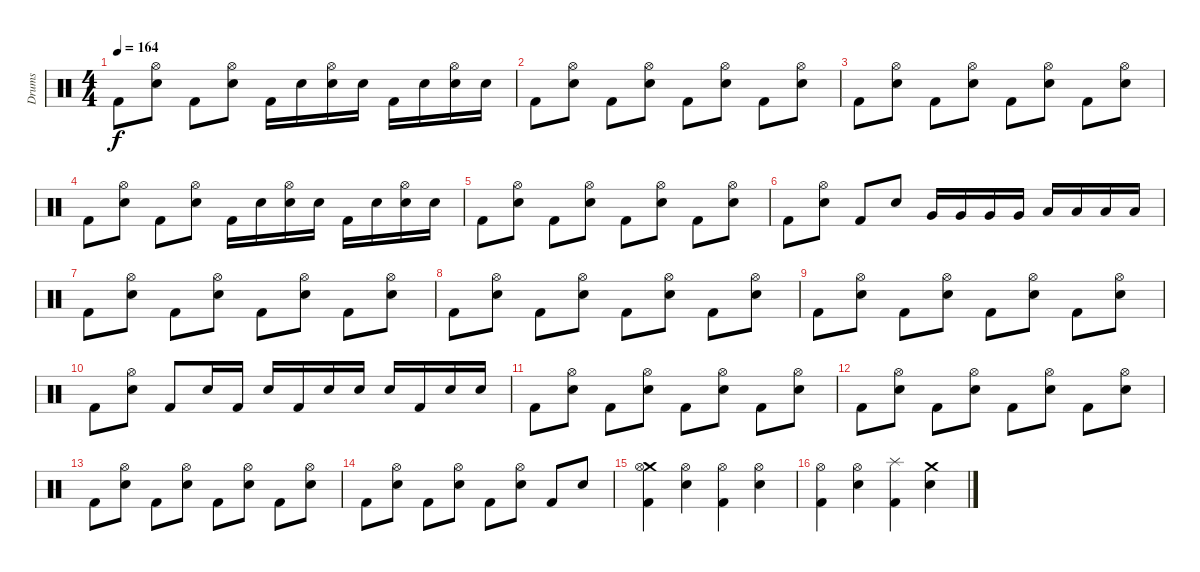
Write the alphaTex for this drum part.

\track ("Drums " "Drums ") {instrument percussion}
\staff {score}
\articulation defaults
\ts (4 4)
\tempo 164
\clef neutral
\ks c "Kick (hit) 2".8{dy f}
("Snare (hit) 2" "Hi-Hat (open)").8 "Kick (hit) 2".8 ("Snare (hit) 2" "Hi-Hat (open)").8 "Kick (hit) 2".16 "Snare (hit) 2".16 ("Snare (hit) 2" "Hi-Hat (open)").16 "Snare (hit) 2".16 "Kick (hit) 2".16 "Snare (hit) 2".16 ("Snare (hit) 2" "Hi-Hat (open)").16 "Snare (hit) 2".16 |
"Kick (hit) 2".8 ("Snare (hit) 2" "Hi-Hat (open)").8 "Kick (hit) 2".8 ("Snare (hit) 2" "Hi-Hat (open)").8 "Kick (hit) 2".8 ("Snare (hit) 2" "Hi-Hat (open)").8 "Kick (hit) 2".8 ("Snare (hit) 2" "Hi-Hat (open)").8 |
"Kick (hit) 2".8 ("Snare (hit) 2" "Hi-Hat (open)").8 "Kick (hit) 2".8 ("Snare (hit) 2" "Hi-Hat (open)").8 "Kick (hit) 2".8 ("Snare (hit) 2" "Hi-Hat (open)").8 "Kick (hit) 2".8 ("Snare (hit) 2" "Hi-Hat (open)").8 |
"Kick (hit) 2".8 ("Snare (hit) 2" "Hi-Hat (open)").8 "Kick (hit) 2".8 ("Snare (hit) 2" "Hi-Hat (open)").8 "Kick (hit) 2".16 "Snare (hit) 2".16 ("Snare (hit) 2" "Hi-Hat (open)").16 "Snare (hit) 2".16 "Kick (hit) 2".16 "Snare (hit) 2".16 ("Snare (hit) 2" "Hi-Hat (open)").16 "Snare (hit) 2".16 |
"Kick (hit) 2".8 ("Snare (hit) 2" "Hi-Hat (open)").8 "Kick (hit) 2".8 ("Snare (hit) 2" "Hi-Hat (open)").8 "Kick (hit) 2".8 ("Snare (hit) 2" "Hi-Hat (open)").8 "Kick (hit) 2".8 ("Snare (hit) 2" "Hi-Hat (open)").8 |
"Kick (hit) 2".8 ("Snare (hit) 2" "Hi-Hat (open)").8 "Kick (hit) 2".8 "Snare (hit) 2".8 "Very Low Tom (hit)".16 "Very Low Tom (hit)".16 "Very Low Tom (hit)".16 "Very Low Tom (hit)".16 "Low Tom (hit)".16 "Low Tom (hit)".16 "Low Tom (hit)".16 "Low Tom (hit)".16 |
"Kick (hit) 2".8 ("Snare (hit) 2" "Hi-Hat (open)").8 "Kick (hit) 2".8 ("Snare (hit) 2" "Hi-Hat (open)").8 "Kick (hit) 2".8 ("Hi-Hat (open)" "Snare (hit) 2").8 "Kick (hit) 2".8 ("Hi-Hat (open)" "Snare (hit) 2").8 |
"Kick (hit) 2".8 ("Snare (hit) 2" "Hi-Hat (open)").8 "Kick (hit) 2".8 ("Snare (hit) 2" "Hi-Hat (open)").8 "Kick (hit) 2".8 ("Snare (hit) 2" "Hi-Hat (open)").8 "Kick (hit) 2".8 ("Snare (hit) 2" "Hi-Hat (open)").8 |
"Kick (hit) 2".8 ("Snare (hit) 2" "Hi-Hat (open)").8 "Kick (hit) 2".8 ("Snare (hit) 2" "Hi-Hat (open)").8 "Kick (hit) 2".8 ("Snare (hit) 2" "Hi-Hat (open)").8 "Kick (hit) 2".8 ("Snare (hit) 2" "Hi-Hat (open)").8 |
"Kick (hit) 2".8 ("Snare (hit) 2" "Hi-Hat (open)").8 "Kick (hit) 2".8 "Snare (hit) 2".16 "Kick (hit) 2".16 "Snare (hit) 2".16 "Kick (hit) 2".16 "Snare (hit) 2".16 "Snare (hit) 2".16 "Snare (hit) 2".16 "Kick (hit) 2".16 "Snare (hit) 2".16 "Snare (hit) 2".16 |
"Kick (hit) 2".8 ("Snare (hit) 2" "Hi-Hat (open)").8 "Kick (hit) 2".8 ("Snare (hit) 2" "Hi-Hat (open)").8 "Kick (hit) 2".8 ("Hi-Hat (open)" "Snare (hit) 2").8 "Kick (hit) 2".8 ("Hi-Hat (open)" "Snare (hit) 2").8 |
"Kick (hit) 2".8 ("Snare (hit) 2" "Hi-Hat (open)").8 "Kick (hit) 2".8 ("Snare (hit) 2" "Hi-Hat (open)").8 "Kick (hit) 2".8 ("Snare (hit) 2" "Hi-Hat (open)").8 "Kick (hit) 2".8 ("Snare (hit) 2" "Hi-Hat (open)").8 |
"Kick (hit) 2".8 ("Snare (hit) 2" "Hi-Hat (open)").8 "Kick (hit) 2".8 ("Snare (hit) 2" "Hi-Hat (open)").8 "Kick (hit) 2".8 ("Hi-Hat (open)" "Snare (hit) 2").8 "Kick (hit) 2".8 ("Hi-Hat (open)" "Snare (hit) 2").8 |
"Kick (hit) 2".8 ("Snare (hit) 2" "Hi-Hat (open)").8 "Kick (hit) 2".8 ("Snare (hit) 2" "Hi-Hat (open)").8 "Kick (hit) 2".8 ("Snare (hit) 2" "Hi-Hat (open)").8 "Kick (hit) 2".8 "Snare (hit) 2".8 |
("Kick (hit) 2" "Crash medium (hit)" "Hi-Hat (open)").4 ("Snare (hit) 2" "Hi-Hat (open)").4 ("Kick (hit) 2" "Hi-Hat (open)").4 ("Snare (hit) 2" "Hi-Hat (open)").4 |
("Kick (hit) 2" "Hi-Hat (open)").4 ("Hi-Hat (open)" "Snare (hit) 2").4 ("Kick (hit) 2" "Splash (hit)").4 ("Snare (hit) 2" "Crash medium (hit)").4
